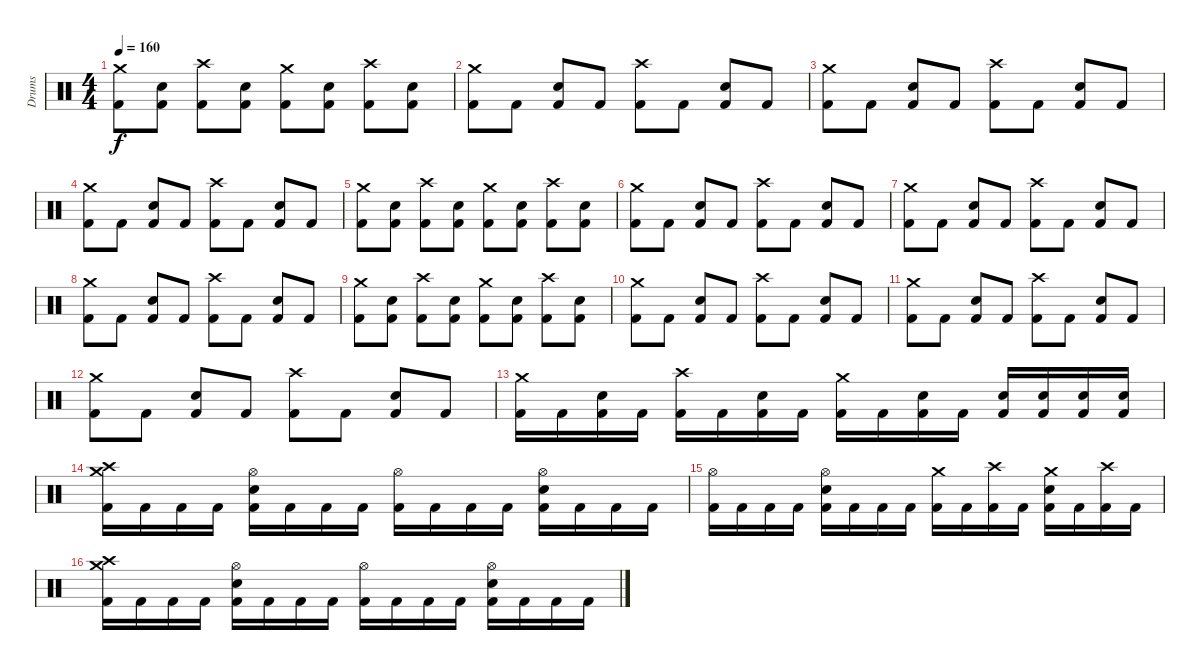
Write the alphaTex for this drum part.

\track ("Drums" "Drums") {instrument percussion}
\staff {score}
\articulation defaults
\ts (4 4)
\tempo 160
\clef neutral
\ks c
("Crash medium (hit)" "Kick (hit) 2").8{dy f} ("Kick (hit) 2" "Snare (hit) 2").8 ("Crash high (hit)" "Kick (hit) 2").8 ("Kick (hit) 2" "Snare (hit) 2").8 ("Crash medium (hit)" "Kick (hit) 2").8 ("Kick (hit) 2" "Snare (hit) 2").8 ("Crash high (hit)" "Kick (hit) 2").8 ("Kick (hit) 2" "Snare (hit) 2").8 |
("Crash medium (hit)" "Kick (hit) 2").8 "Kick (hit) 2".8 ("Kick (hit) 2" "Snare (hit) 2").8 "Kick (hit) 2".8 ("Crash high (hit)" "Kick (hit) 2").8 "Kick (hit) 2".8 ("Kick (hit) 2" "Snare (hit) 2").8 "Kick (hit) 2".8 |
("Crash medium (hit)" "Kick (hit) 2").8 "Kick (hit) 2".8 ("Kick (hit) 2" "Snare (hit) 2").8 "Kick (hit) 2".8 ("Crash high (hit)" "Kick (hit) 2").8 "Kick (hit) 2".8 ("Kick (hit) 2" "Snare (hit) 2").8 "Kick (hit) 2".8 |
("Crash medium (hit)" "Kick (hit) 2").8 "Kick (hit) 2".8 ("Kick (hit) 2" "Snare (hit) 2").8 "Kick (hit) 2".8 ("Crash high (hit)" "Kick (hit) 2").8 "Kick (hit) 2".8 ("Kick (hit) 2" "Snare (hit) 2").8 "Kick (hit) 2".8 |
("Crash medium (hit)" "Kick (hit) 2").8 ("Kick (hit) 2" "Snare (hit) 2").8 ("Crash high (hit)" "Kick (hit) 2").8 ("Kick (hit) 2" "Snare (hit) 2").8 ("Crash medium (hit)" "Kick (hit) 2").8 ("Kick (hit) 2" "Snare (hit) 2").8 ("Crash high (hit)" "Kick (hit) 2").8 ("Kick (hit) 2" "Snare (hit) 2").8 |
("Crash medium (hit)" "Kick (hit) 2").8 "Kick (hit) 2".8 ("Kick (hit) 2" "Snare (hit) 2").8 "Kick (hit) 2".8 ("Crash high (hit)" "Kick (hit) 2").8 "Kick (hit) 2".8 ("Kick (hit) 2" "Snare (hit) 2").8 "Kick (hit) 2".8 |
("Crash medium (hit)" "Kick (hit) 2").8 "Kick (hit) 2".8 ("Kick (hit) 2" "Snare (hit) 2").8 "Kick (hit) 2".8 ("Crash high (hit)" "Kick (hit) 2").8 "Kick (hit) 2".8 ("Kick (hit) 2" "Snare (hit) 2").8 "Kick (hit) 2".8 |
("Crash medium (hit)" "Kick (hit) 2").8 "Kick (hit) 2".8 ("Kick (hit) 2" "Snare (hit) 2").8 "Kick (hit) 2".8 ("Crash high (hit)" "Kick (hit) 2").8 "Kick (hit) 2".8 ("Kick (hit) 2" "Snare (hit) 2").8 "Kick (hit) 2".8 |
("Crash medium (hit)" "Kick (hit) 2").8 ("Kick (hit) 2" "Snare (hit) 2").8 ("Crash high (hit)" "Kick (hit) 2").8 ("Kick (hit) 2" "Snare (hit) 2").8 ("Crash medium (hit)" "Kick (hit) 2").8 ("Kick (hit) 2" "Snare (hit) 2").8 ("Crash high (hit)" "Kick (hit) 2").8 ("Kick (hit) 2" "Snare (hit) 2").8 |
("Crash medium (hit)" "Kick (hit) 2").8 "Kick (hit) 2".8 ("Kick (hit) 2" "Snare (hit) 2").8 "Kick (hit) 2".8 ("Crash high (hit)" "Kick (hit) 2").8 "Kick (hit) 2".8 ("Kick (hit) 2" "Snare (hit) 2").8 "Kick (hit) 2".8 |
("Crash medium (hit)" "Kick (hit) 2").8 "Kick (hit) 2".8 ("Kick (hit) 2" "Snare (hit) 2").8 "Kick (hit) 2".8 ("Crash high (hit)" "Kick (hit) 2").8 "Kick (hit) 2".8 ("Kick (hit) 2" "Snare (hit) 2").8 "Kick (hit) 2".8 |
("Crash medium (hit)" "Kick (hit) 2").8 "Kick (hit) 2".8 ("Kick (hit) 2" "Snare (hit) 2").8 "Kick (hit) 2".8 ("Crash high (hit)" "Kick (hit) 2").8 "Kick (hit) 2".8 ("Kick (hit) 2" "Snare (hit) 2").8 "Kick (hit) 2".8 |
("Crash medium (hit)" "Kick (hit) 2").16 "Kick (hit) 2".16 ("Kick (hit) 2" "Snare (hit) 2").16 "Kick (hit) 2".16 ("Crash high (hit)" "Kick (hit) 2").16 "Kick (hit) 2".16 ("Kick (hit) 2" "Snare (hit) 2").16 "Kick (hit) 2".16 ("Crash medium (hit)" "Kick (hit) 2").16 "Kick (hit) 2".16 ("Kick (hit) 2" "Snare (hit) 2").16 "Kick (hit) 2".16 ("Kick (hit) 2" "Snare (hit) 2").16 ("Kick (hit) 2" "Snare (hit) 2").16 ("Kick (hit) 2" "Snare (hit) 2").16 ("Kick (hit) 2" "Snare (hit) 2").16 |
("Crash medium (hit)" "Crash high (hit)" "Kick (hit) 2").16 "Kick (hit) 2".16 "Kick (hit) 2".16 "Kick (hit) 2".16 ("Hi-Hat (open)" "Kick (hit) 2" "Snare (hit) 2").16 "Kick (hit) 2".16 "Kick (hit) 2".16 "Kick (hit) 2".16 ("Hi-Hat (open)" "Kick (hit) 2").16 "Kick (hit) 2".16 "Kick (hit) 2".16 "Kick (hit) 2".16 ("Hi-Hat (open)" "Kick (hit) 2" "Snare (hit) 2").16 "Kick (hit) 2".16 "Kick (hit) 2".16 "Kick (hit) 2".16 |
("Hi-Hat (open)" "Kick (hit) 2").16 "Kick (hit) 2".16 "Kick (hit) 2".16 "Kick (hit) 2".16 ("Hi-Hat (open)" "Kick (hit) 2" "Snare (hit) 2").16 "Kick (hit) 2".16 "Kick (hit) 2".16 "Kick (hit) 2".16 ("Crash medium (hit)" "Kick (hit) 2").16 "Kick (hit) 2".16 ("Crash high (hit)" "Kick (hit) 2").16 "Kick (hit) 2".16 ("Crash medium (hit)" "Kick (hit) 2" "Snare (hit) 2").16 "Kick (hit) 2".16 ("Crash high (hit)" "Kick (hit) 2").16 "Kick (hit) 2".16 |
("Crash medium (hit)" "Crash high (hit)" "Kick (hit) 2").16 "Kick (hit) 2".16 "Kick (hit) 2".16 "Kick (hit) 2".16 ("Hi-Hat (open)" "Kick (hit) 2" "Snare (hit) 2").16 "Kick (hit) 2".16 "Kick (hit) 2".16 "Kick (hit) 2".16 ("Hi-Hat (open)" "Kick (hit) 2").16 "Kick (hit) 2".16 "Kick (hit) 2".16 "Kick (hit) 2".16 ("Hi-Hat (open)" "Kick (hit) 2" "Snare (hit) 2").16 "Kick (hit) 2".16 "Kick (hit) 2".16 "Kick (hit) 2".16
